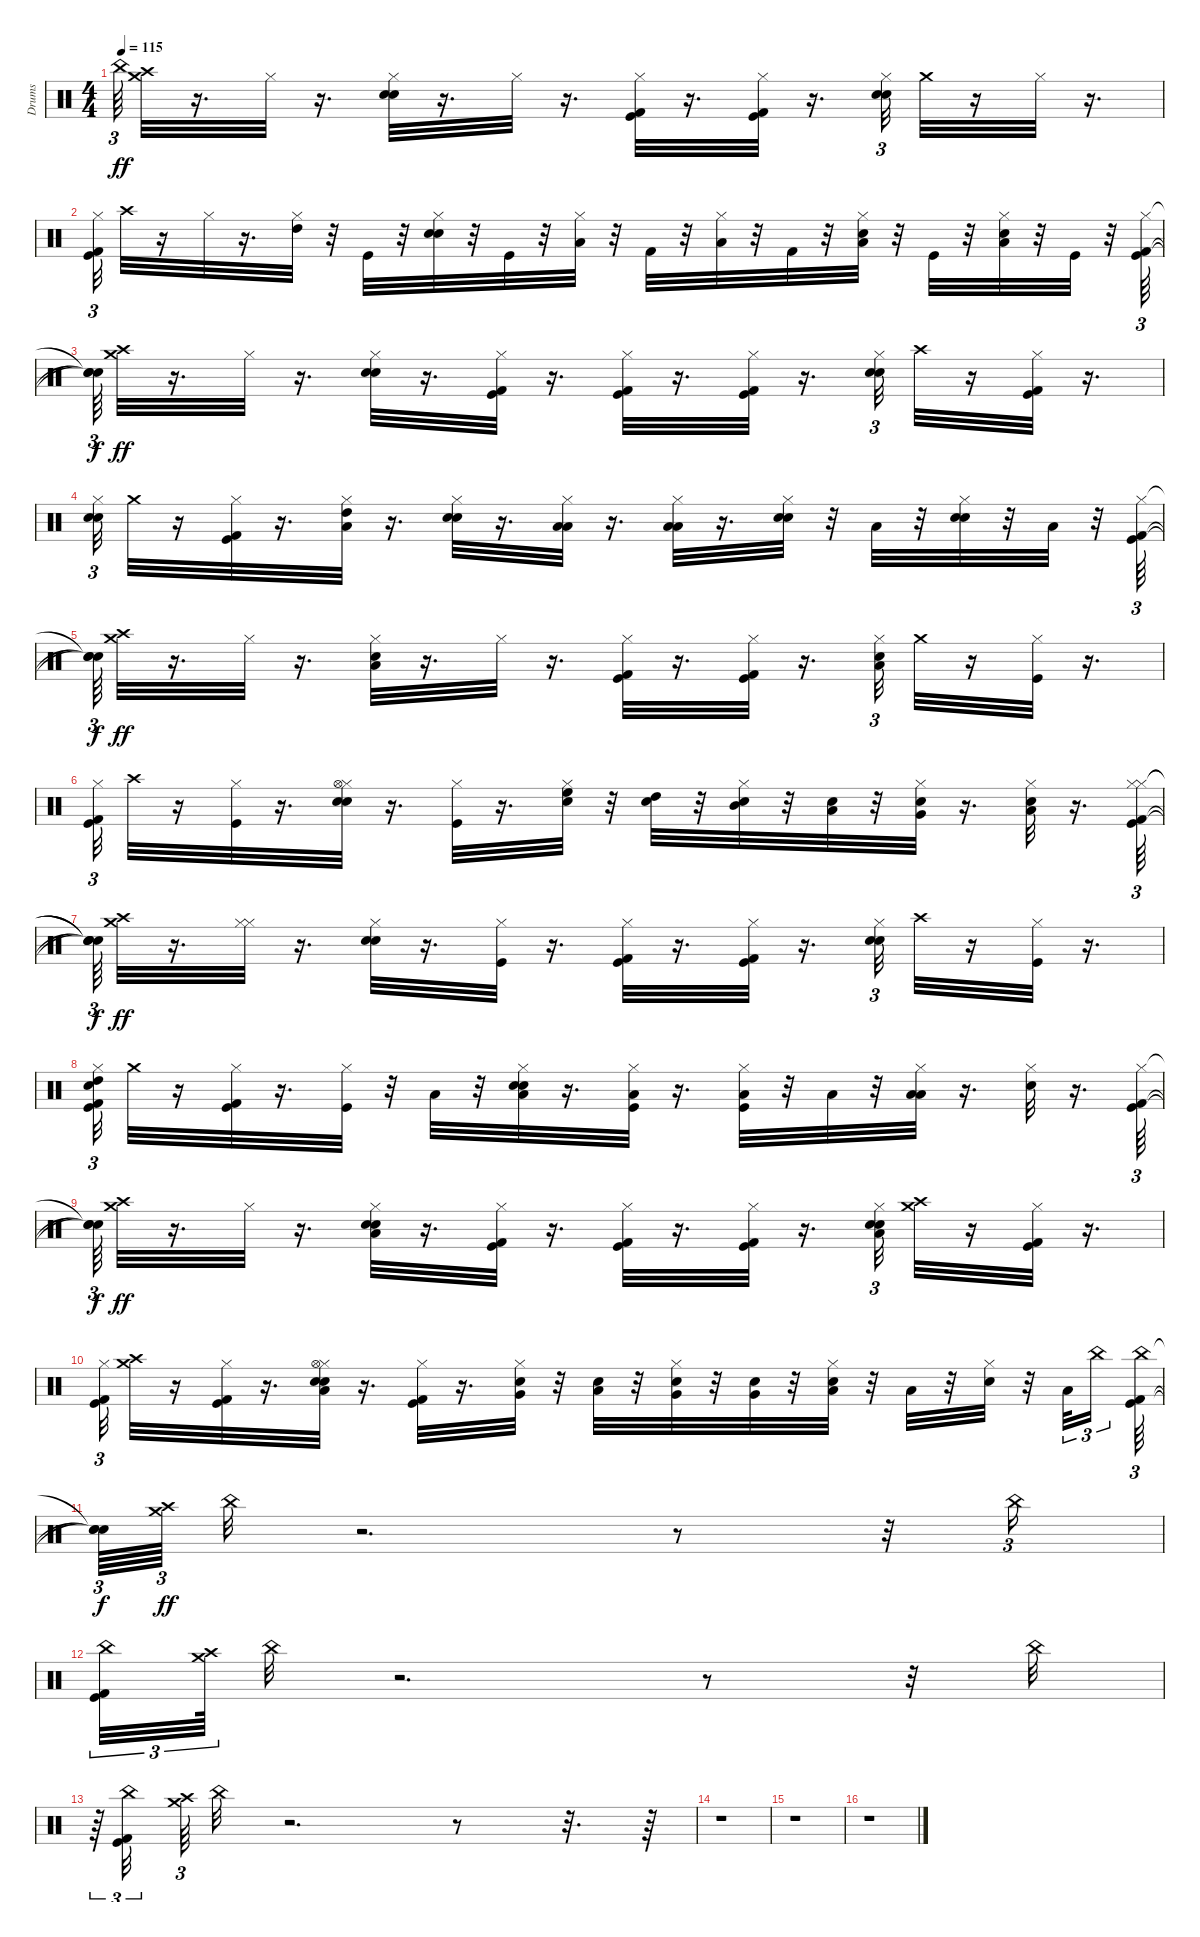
\track ("Drums" "Drums") {instrument percussion}
\staff {score}
\articulation defaults
\ts (4 4)
\tempo 115
\clef neutral
\ks c "China (hit)".64{tu (3 2) dy ff}
("Crash high (hit)" "Crash medium (hit)").32 r.16{d} "Hi-Hat (closed)".32 r.16{d} ("Snare (hit) 2" "Electric Snare (hit)" "Hi-Hat (closed)").32 r.16{d} "Hi-Hat (closed)".32 r.16{d} ("Kick (hit) 2" "Hi-Hat (closed)" "Kick (hit)").32 r.16{d} ("Hi-Hat (closed)" "Kick (hit) 2" "Kick (hit)").32 r.16{d} ("Hi-Hat (closed)" "Electric Snare (hit)" "Snare (hit) 2").32{tu (3 2)} "Crash medium (hit)".32 r.16 "Hi-Hat (closed)".32 r.16{d} |
("Kick (hit)" "Hi-Hat (closed)" "Kick (hit) 2").32{tu (3 2)} "Crash high (hit)".32 r.16 "Hi-Hat (closed)".32 r.16{d} ("Hi-Hat (closed)" "High Tom (hit)").32 r.32 "Kick (hit)".32 r.32 ("Electric Snare (hit)" "Hi-Hat (closed)" "Snare (hit) 2").32 r.32 "Kick (hit)".32 r.32 ("Low Tom (hit)" "Hi-Hat (closed)").32 r.32 "Kick (hit) 2".32 r.32 ("Hi-Hat (closed)" "Low Tom (hit)").32 r.32 "Kick (hit) 2".32 r.32 ("Low Floor Tom (hit)" "Snare (hit) 2" "Hi-Hat (closed)").32 r.32 "Kick (hit)".32 r.32 ("Hi-Hat (closed)" "Snare (hit) 2" "Low Floor Tom (hit)").32 r.32 "Kick (hit)".32 r.32 ("Kick (hit)" "Kick (hit) 2" "Hi-Hat (closed)").64{tu (3 2)} |
("Snare (hit)"{t} "Snare (hit)"{t} "Snare (hit)"{t}).64{tu (3 2) dy f} ("Crash high (hit)" "Crash medium (hit)").32{dy ff} r.16{d} "Hi-Hat (closed)".32 r.16{d} ("Snare (hit) 2" "Hi-Hat (closed)" "Electric Snare (hit)").32 r.16{d} ("Kick (hit) 2" "Hi-Hat (closed)" "Kick (hit)").32 r.16{d} ("Kick (hit) 2" "Kick (hit)" "Hi-Hat (closed)").32 r.16{d} ("Kick (hit) 2" "Kick (hit)" "Hi-Hat (closed)").32 r.16{d} ("Hi-Hat (closed)" "Snare (hit) 2" "Electric Snare (hit)").32{tu (3 2)} "Crash high (hit)".32 r.16 ("Hi-Hat (closed)" "Kick (hit)" "Kick (hit) 2").32 r.16{d} |
("Hi-Hat (closed)" "Electric Snare (hit)" "Snare (hit) 2").32{tu (3 2)} "Crash medium (hit)".32 r.16 ("Kick (hit)" "Kick (hit) 2" "Hi-Hat (closed)").32 r.16{d} ("High Tom (hit)" "Low Floor Tom (hit)" "Hi-Hat (closed)").32 r.16{d} ("Snare (hit) 2" "Hi-Hat (closed)" "Electric Snare (hit)").32 r.16{d} ("Low Tom (hit)" "Hi-Hat (closed)" "Low Floor Tom (hit)").32 r.16{d} ("Low Tom (hit)" "Hi-Hat (closed)" "Low Floor Tom (hit)").32 r.16{d} ("Electric Snare (hit)" "Snare (hit) 2" "Hi-Hat (closed)").32 r.32 "Low Floor Tom (hit)".32 r.32 ("Snare (hit) 2" "Hi-Hat (closed)" "Electric Snare (hit)").32 r.32 "Low Floor Tom (hit)".32 r.32 ("Kick (hit) 2" "Kick (hit)" "Hi-Hat (closed)").64{tu (3 2)} |
("Snare (hit)"{t} "Snare (hit)"{t} "Snare (hit)"{t}).64{tu (3 2) dy f} ("Crash medium (hit)" "Crash high (hit)").32{dy ff} r.16{d} "Hi-Hat (closed)".32 r.16{d} ("Low Floor Tom (hit)" "Hi-Hat (closed)" "Snare (hit) 2").32 r.16{d} "Hi-Hat (closed)".32 r.16{d} ("Hi-Hat (closed)" "Kick (hit) 2" "Kick (hit)").32 r.16{d} ("Hi-Hat (closed)" "Kick (hit) 2" "Kick (hit)").32 r.16{d} ("Low Floor Tom (hit)" "Snare (hit) 2" "Hi-Hat (closed)").32{tu (3 2)} "Crash medium (hit)".32 r.16 ("Hi-Hat (closed)" "Kick (hit)").32 r.16{d} |
("Kick (hit)" "Hi-Hat (closed)" "Kick (hit) 2").32{tu (3 2)} "Crash high (hit)".32 r.16 ("Hi-Hat (closed)" "Kick (hit)").32 r.16{d} ("Hi-Hat (closed)" "Snare (hit) 2" "Electric Snare (hit)" "Hi-Hat (open)").32 r.16{d} ("Hi-Hat (closed)" "Kick (hit)").32 r.16{d} ("Hi-Hat (closed)" "Snare (hit) 2" "High Floor Tom (hit)").32 r.32 ("High Tom (hit)" "Snare (hit) 2").32 r.32 ("Snare (hit) 2" "Hi-Hat (closed)" "Mid Tom (hit)").32 r.32 ("Low Tom (hit)" "Snare (hit) 2").32 r.32 ("Hi-Hat (closed)" "Snare (hit) 2" "Very Low Tom (hit)").32 r.16{d} ("Snare (hit) 2" "Hi-Hat (closed)" "Low Floor Tom (hit)").32 r.16{d} ("Hi-Hat (closed)" "Kick (hit)" "Kick (hit) 2" "Hi-Hat (closed)").64{tu (3 2)} |
("Snare (hit)"{t} "Snare (hit)"{t} "Snare (hit)"{t} "Snare (hit)"{t}).64{tu (3 2) dy f} ("Crash high (hit)" "Crash medium (hit)").32{dy ff} r.16{d} ("Hi-Hat (closed)" "Hi-Hat (closed)").32 r.16{d} ("Electric Snare (hit)" "Snare (hit) 2" "Hi-Hat (closed)").32 r.16{d} ("Kick (hit)" "Hi-Hat (closed)").32 r.16{d} ("Kick (hit)" "Kick (hit) 2" "Hi-Hat (closed)").32 r.16{d} ("Kick (hit) 2" "Hi-Hat (closed)" "Kick (hit)").32 r.16{d} ("Snare (hit) 2" "Hi-Hat (closed)" "Electric Snare (hit)").32{tu (3 2)} "Crash high (hit)".32 r.16 ("Hi-Hat (closed)" "Kick (hit)").32 r.16{d} |
("Kick (hit) 2" "Snare (hit) 2" "Kick (hit)" "High Tom (hit)" "Hi-Hat (closed)").32{tu (3 2)} "Crash medium (hit)".32 r.16 ("Kick (hit) 2" "Hi-Hat (closed)" "Kick (hit)").32 r.16{d} ("Kick (hit)" "Hi-Hat (closed)").32 r.32 "Low Tom (hit)".32 r.32 ("Electric Snare (hit)" "Low Tom (hit)" "Hi-Hat (closed)" "Snare (hit) 2").32 r.16{d} ("Low Floor Tom (hit)" "Hi-Hat (closed)" "Kick (hit)").32 r.16{d} ("Low Floor Tom (hit)" "Kick (hit)" "Hi-Hat (closed)").32 r.32 "Low Tom (hit)".32 r.32 ("Hi-Hat (closed)" "Low Floor Tom (hit)" "Low Tom (hit)").32 r.16{d} ("Snare (hit) 2" "Hi-Hat (closed)").32 r.16{d} ("Kick (hit)" "Kick (hit) 2" "Hi-Hat (closed)").64{tu (3 2)} |
("Snare (hit)"{t} "Snare (hit)"{t} "Snare (hit)"{t}).64{tu (3 2) dy f} ("Crash high (hit)" "Crash medium (hit)").32{dy ff} r.16{d} "Hi-Hat (closed)".32 r.16{d} ("Hi-Hat (closed)" "Low Floor Tom (hit)" "Snare (hit) 2" "Electric Snare (hit)").32 r.16{d} ("Hi-Hat (closed)" "Kick (hit) 2" "Kick (hit)").32 r.16{d} ("Hi-Hat (closed)" "Kick (hit)" "Kick (hit) 2").32 r.16{d} ("Kick (hit)" "Hi-Hat (closed)" "Kick (hit) 2").32 r.16{d} ("Low Floor Tom (hit)" "Electric Snare (hit)" "Hi-Hat (closed)" "Snare (hit) 2").32{tu (3 2)} ("Crash medium (hit)" "Crash high (hit)").32 r.16 ("Kick (hit) 2" "Hi-Hat (closed)" "Kick (hit)").32 r.16{d} |
("Kick (hit)" "Hi-Hat (closed)" "Kick (hit) 2").32{tu (3 2)} ("Crash high (hit)" "Crash medium (hit)").32 r.16 ("Kick (hit) 2" "Hi-Hat (closed)" "Kick (hit)").32 r.16{d} ("Hi-Hat (closed)" "Snare (hit) 2" "Electric Snare (hit)" "Hi-Hat (open)" "Low Floor Tom (hit)").32 r.16{d} ("Kick (hit)" "Hi-Hat (closed)" "Kick (hit) 2").32 r.16{d} ("Snare (hit) 2" "Hi-Hat (closed)" "Very Low Tom (hit)").32 r.32 ("Snare (hit) 2" "Low Tom (hit)").32 r.32 ("Very Low Tom (hit)" "Snare (hit) 2" "Hi-Hat (closed)").32 r.32 ("Snare (hit) 2" "Very Low Tom (hit)").32 r.32 ("Low Tom (hit)" "Hi-Hat (closed)" "Snare (hit) 2").32 r.32 "Low Floor Tom (hit)".32 r.32 ("Hi-Hat (closed)" "Snare (hit) 2").32 r.32 "Low Floor Tom (hit)".32{tu (3 2)} "China (hit)".16{tu (3 2)} ("Kick (hit) 2" "China (hit)" "Kick (hit)").64{tu (3 2)} |
("Snare (hit)"{t} "Snare (hit)"{t} "Snare (hit)"{t}).64{tu (3 2) dy f} ("Crash high (hit)" "Crash medium (hit)").64{tu (3 2) dy ff} "China (hit)".32 r.2{d} r.8 r.32 "China (hit)".16{tu (3 2)} |
("Kick (hit) 2" "Kick (hit)" "China (hit)").32{tu (3 2)} ("Crash high (hit)" "Crash medium (hit)").64{tu (3 2)} "China (hit)".32 r.2{d} r.8 r.32 "China (hit)".32 |
r.64{tu (3 2)} ("China (hit)" "Kick (hit)" "Kick (hit) 2").32{tu (3 2)} ("Crash medium (hit)" "Crash high (hit)").64{tu (3 2)} "China (hit)".32 r.2{d} r.8 r.32{d} r.64 |
r.1 |
r.1 |
r.1
